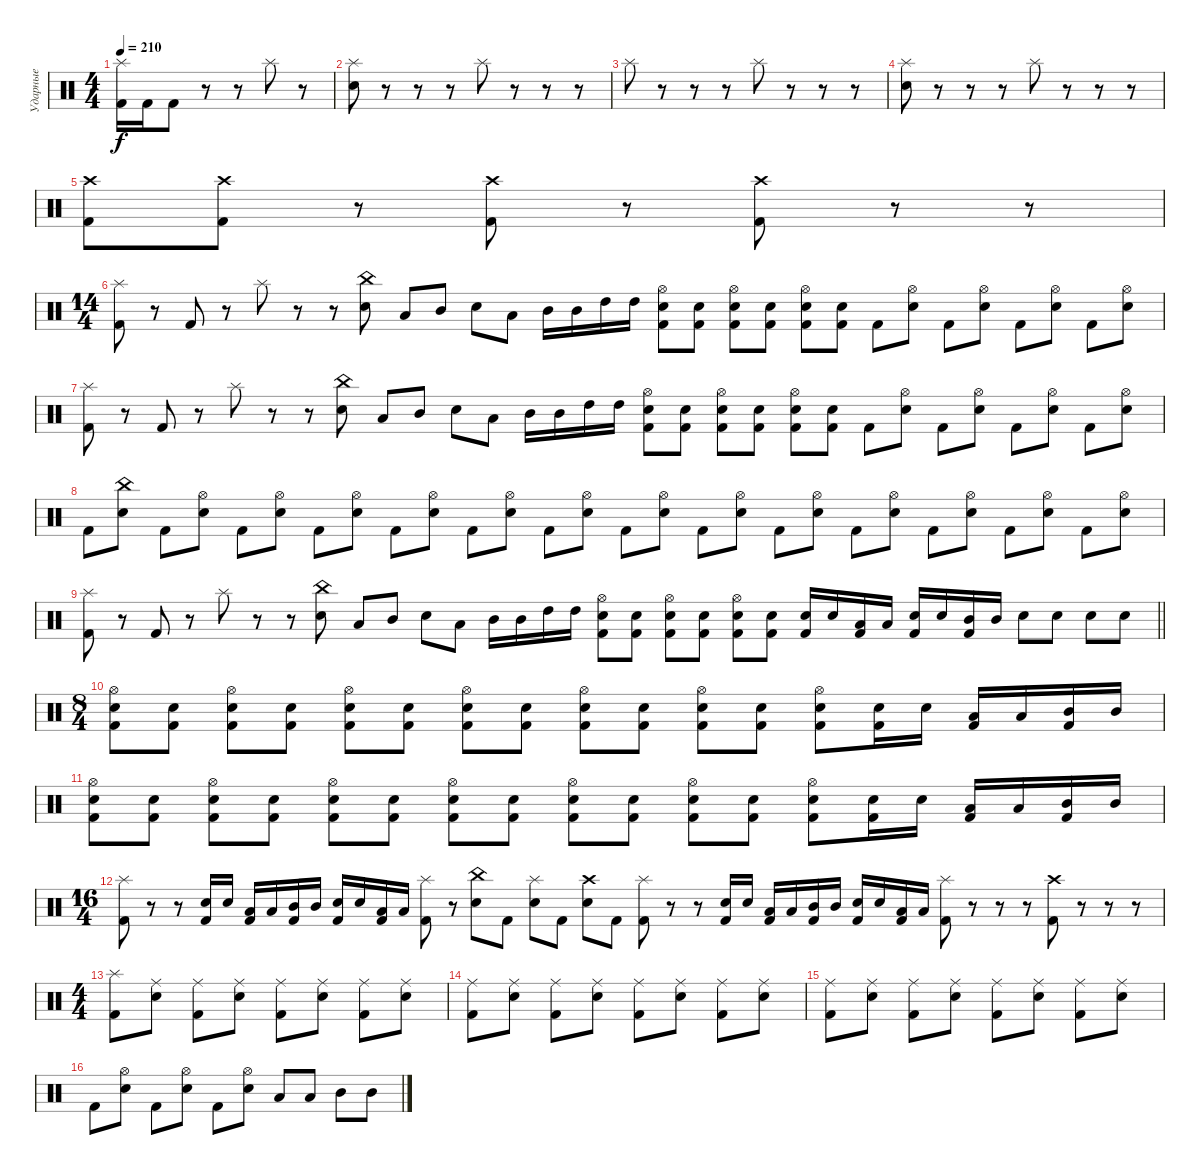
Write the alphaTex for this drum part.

\track ("Ударные" "Ударные") {instrument percussion}
\staff {score}
\articulation defaults
\ts (4 4)
\tempo 210
\clef neutral
\ks c
("Kick (hit) 2" "Splash (hit)").16{dy f} "Kick (hit) 2".16 "Kick (hit) 2".8 r.8 r.8 "Splash (hit)".8 r.8 |
("Electric Snare (hit)" "Splash (hit)").8 r.8 r.8 r.8 "Splash (hit)".8 r.8 r.8 r.8 |
"Splash (hit)".8 r.8 r.8 r.8 "Splash (hit)".8 r.8 r.8 r.8 |
("Electric Snare (hit)" "Splash (hit)").8 r.8 r.8 r.8 "Splash (hit)".8 r.8 r.8 r.8 |
("Kick (hit) 2" "Crash high (hit)").8 ("Kick (hit) 2" "Crash high (hit)").8 r.8 ("Kick (hit) 2" "Crash high (hit)").8 r.8 ("Kick (hit) 2" "Crash high (hit)").8 r.8 r.8 |
\ts (14 4)
("Kick (hit) 2" "Splash (hit)").8 r.8 "Kick (hit) 2".8 r.8 "Splash (hit)".8 r.8 r.8 ("Electric Snare (hit)" "China (hit)").8 "Low Tom (hit)".8 "Mid Tom (hit)".8 "Electric Snare (hit)".8 "Low Tom (hit)".8 "Mid Tom (hit)".16 "Mid Tom (hit)".16 "High Tom (hit)".16 "High Tom (hit)".16 ("Kick (hit) 2" "Electric Snare (hit)" "Hi-Hat (open)").8 ("Kick (hit) 2" "Electric Snare (hit)").8 ("Kick (hit) 2" "Electric Snare (hit)" "Hi-Hat (open)").8 ("Kick (hit) 2" "Electric Snare (hit)").8 ("Kick (hit) 2" "Electric Snare (hit)" "Hi-Hat (open)").8 ("Kick (hit) 2" "Electric Snare (hit)").8 "Kick (hit) 2".8 ("Electric Snare (hit)" "Hi-Hat (open)").8 "Kick (hit) 2".8 ("Electric Snare (hit)" "Hi-Hat (open)").8 "Kick (hit) 2".8 ("Electric Snare (hit)" "Hi-Hat (open)").8 "Kick (hit) 2".8 ("Electric Snare (hit)" "Hi-Hat (open)").8 |
("Kick (hit) 2" "Splash (hit)").8 r.8 "Kick (hit) 2".8 r.8 "Splash (hit)".8 r.8 r.8 ("Electric Snare (hit)" "China (hit)").8 "Low Tom (hit)".8 "Mid Tom (hit)".8 "Electric Snare (hit)".8 "Low Tom (hit)".8 "Mid Tom (hit)".16 "Mid Tom (hit)".16 "High Tom (hit)".16 "High Tom (hit)".16 ("Kick (hit) 2" "Electric Snare (hit)" "Hi-Hat (open)").8 ("Kick (hit) 2" "Electric Snare (hit)").8 ("Kick (hit) 2" "Electric Snare (hit)" "Hi-Hat (open)").8 ("Kick (hit) 2" "Electric Snare (hit)").8 ("Kick (hit) 2" "Electric Snare (hit)" "Hi-Hat (open)").8 ("Kick (hit) 2" "Electric Snare (hit)").8 "Kick (hit) 2".8 ("Electric Snare (hit)" "Hi-Hat (open)").8 "Kick (hit) 2".8 ("Electric Snare (hit)" "Hi-Hat (open)").8 "Kick (hit) 2".8 ("Electric Snare (hit)" "Hi-Hat (open)").8 "Kick (hit) 2".8 ("Electric Snare (hit)" "Hi-Hat (open)").8 |
"Kick (hit) 2".8 ("Electric Snare (hit)" "China (hit)").8 "Kick (hit) 2".8 ("Electric Snare (hit)" "Hi-Hat (open)").8 "Kick (hit) 2".8 ("Electric Snare (hit)" "Hi-Hat (open)").8 "Kick (hit) 2".8 ("Electric Snare (hit)" "Hi-Hat (open)").8 "Kick (hit) 2".8 ("Electric Snare (hit)" "Hi-Hat (open)").8 "Kick (hit) 2".8 ("Electric Snare (hit)" "Hi-Hat (open)").8 "Kick (hit) 2".8 ("Electric Snare (hit)" "Hi-Hat (open)").8 "Kick (hit) 2".8 ("Electric Snare (hit)" "Hi-Hat (open)").8 "Kick (hit) 2".8 ("Electric Snare (hit)" "Hi-Hat (open)").8 "Kick (hit) 2".8 ("Electric Snare (hit)" "Hi-Hat (open)").8 "Kick (hit) 2".8 ("Electric Snare (hit)" "Hi-Hat (open)").8 "Kick (hit) 2".8 ("Electric Snare (hit)" "Hi-Hat (open)").8 "Kick (hit) 2".8 ("Electric Snare (hit)" "Hi-Hat (open)").8 "Kick (hit) 2".8 ("Electric Snare (hit)" "Hi-Hat (open)").8 |
\barLineRight lightlight
("Kick (hit) 2" "Splash (hit)").8 r.8 "Kick (hit) 2".8 r.8 "Splash (hit)".8 r.8 r.8 ("Electric Snare (hit)" "China (hit)").8 "Low Tom (hit)".8 "Mid Tom (hit)".8 "Electric Snare (hit)".8 "Low Tom (hit)".8 "Mid Tom (hit)".16 "Mid Tom (hit)".16 "High Tom (hit)".16 "High Tom (hit)".16 ("Kick (hit) 2" "Electric Snare (hit)" "Hi-Hat (open)").8 ("Kick (hit) 2" "Electric Snare (hit)").8 ("Kick (hit) 2" "Electric Snare (hit)" "Hi-Hat (open)").8 ("Kick (hit) 2" "Electric Snare (hit)").8 ("Kick (hit) 2" "Electric Snare (hit)" "Hi-Hat (open)").8 ("Kick (hit) 2" "Electric Snare (hit)").8 ("Kick (hit) 2" "Electric Snare (hit)").16 "Electric Snare (hit)".16 ("Kick (hit) 2" "Low Tom (hit)").16 "Low Tom (hit)".16 ("Kick (hit) 2" "Electric Snare (hit)").16 "Electric Snare (hit)".16 ("Kick (hit) 2" "Mid Tom (hit)").16 "Mid Tom (hit)".16 "Electric Snare (hit)".8 "Electric Snare (hit)".8 "Electric Snare (hit)".8 "Electric Snare (hit)".8 |
\ts (8 4)
("Hi-Hat (open)" "Electric Snare (hit)" "Kick (hit) 2").8 ("Electric Snare (hit)" "Kick (hit) 2").8 ("Hi-Hat (open)" "Electric Snare (hit)" "Kick (hit) 2").8 ("Electric Snare (hit)" "Kick (hit) 2").8 ("Hi-Hat (open)" "Electric Snare (hit)" "Kick (hit) 2").8 ("Electric Snare (hit)" "Kick (hit) 2").8 ("Hi-Hat (open)" "Electric Snare (hit)" "Kick (hit) 2").8 ("Electric Snare (hit)" "Kick (hit) 2").8 ("Hi-Hat (open)" "Electric Snare (hit)" "Kick (hit) 2").8 ("Electric Snare (hit)" "Kick (hit) 2").8 ("Hi-Hat (open)" "Electric Snare (hit)" "Kick (hit) 2").8 ("Electric Snare (hit)" "Kick (hit) 2").8 ("Hi-Hat (open)" "Electric Snare (hit)" "Kick (hit) 2").8 ("Kick (hit) 2" "Electric Snare (hit)").16 "Electric Snare (hit)".16 ("Kick (hit) 2" "Low Tom (hit)").16 "Low Tom (hit)".16 ("Kick (hit) 2" "Mid Tom (hit)").16 "Mid Tom (hit)".16 |
("Hi-Hat (open)" "Electric Snare (hit)" "Kick (hit) 2").8 ("Electric Snare (hit)" "Kick (hit) 2").8 ("Hi-Hat (open)" "Electric Snare (hit)" "Kick (hit) 2").8 ("Electric Snare (hit)" "Kick (hit) 2").8 ("Hi-Hat (open)" "Electric Snare (hit)" "Kick (hit) 2").8 ("Electric Snare (hit)" "Kick (hit) 2").8 ("Hi-Hat (open)" "Electric Snare (hit)" "Kick (hit) 2").8 ("Electric Snare (hit)" "Kick (hit) 2").8 ("Hi-Hat (open)" "Electric Snare (hit)" "Kick (hit) 2").8 ("Electric Snare (hit)" "Kick (hit) 2").8 ("Hi-Hat (open)" "Electric Snare (hit)" "Kick (hit) 2").8 ("Electric Snare (hit)" "Kick (hit) 2").8 ("Hi-Hat (open)" "Electric Snare (hit)" "Kick (hit) 2").8 ("Kick (hit) 2" "Electric Snare (hit)").16 "Electric Snare (hit)".16 ("Kick (hit) 2" "Low Tom (hit)").16 "Low Tom (hit)".16 ("Kick (hit) 2" "Mid Tom (hit)").16 "Mid Tom (hit)".16 |
\ts (16 4)
("Kick (hit) 2" "Splash (hit)").8 r.8 r.8 ("Kick (hit) 2" "Electric Snare (hit)").16 "Electric Snare (hit)".16 ("Kick (hit) 2" "Low Tom (hit)").16 "Low Tom (hit)".16 ("Kick (hit) 2" "Mid Tom (hit)").16 "Mid Tom (hit)".16 ("Kick (hit) 2" "Electric Snare (hit)").16 "Electric Snare (hit)".16 ("Kick (hit) 2" "Low Tom (hit)").16 "Low Tom (hit)".16 ("Kick (hit) 2" "Splash (hit)").8 r.8 ("Electric Snare (hit)" "China (hit)").8 "Kick (hit) 2".8 ("Electric Snare (hit)" "Splash (hit)").8 "Kick (hit) 2".8 ("Electric Snare (hit)" "Crash high (hit)").8 "Kick (hit) 2".8 ("Kick (hit) 2" "Splash (hit)").8 r.8 r.8 ("Kick (hit) 2" "Electric Snare (hit)").16 "Electric Snare (hit)".16 ("Kick (hit) 2" "Low Tom (hit)").16 "Low Tom (hit)".16 ("Kick (hit) 2" "Mid Tom (hit)").16 "Mid Tom (hit)".16 ("Kick (hit) 2" "Electric Snare (hit)").16 "Electric Snare (hit)".16 ("Kick (hit) 2" "Low Tom (hit)").16 "Low Tom (hit)".16 ("Kick (hit) 2" "Splash (hit)").8 r.8 r.8 r.8 ("Kick (hit) 2" "Crash high (hit)").8 r.8 r.8 r.8 |
\ts (4 4)
("Kick (hit) 2" "Splash (hit)").8 ("Electric Snare (hit)" "Ride (middle)").8 ("Kick (hit) 2" "Ride (middle)").8 ("Electric Snare (hit)" "Ride (middle)").8 ("Kick (hit) 2" "Ride (middle)").8 ("Electric Snare (hit)" "Ride (middle)").8 ("Kick (hit) 2" "Ride (middle)").8 ("Electric Snare (hit)" "Ride (middle)").8 |
("Kick (hit) 2" "Ride (middle)").8 ("Electric Snare (hit)" "Ride (middle)").8 ("Kick (hit) 2" "Ride (middle)").8 ("Electric Snare (hit)" "Ride (middle)").8 ("Kick (hit) 2" "Ride (middle)").8 ("Electric Snare (hit)" "Ride (middle)").8 ("Kick (hit) 2" "Ride (middle)").8 ("Electric Snare (hit)" "Ride (middle)").8 |
("Kick (hit) 2" "Ride (middle)").8 ("Electric Snare (hit)" "Ride (middle)").8 ("Kick (hit) 2" "Ride (middle)").8 ("Electric Snare (hit)" "Ride (middle)").8 ("Kick (hit) 2" "Ride (middle)").8 ("Electric Snare (hit)" "Ride (middle)").8 ("Kick (hit) 2" "Ride (middle)").8 ("Electric Snare (hit)" "Ride (middle)").8 |
"Kick (hit) 2".8 ("Electric Snare (hit)" "Hi-Hat (open)").8 "Kick (hit) 2".8 ("Electric Snare (hit)" "Hi-Hat (open)").8 "Kick (hit) 2".8 ("Electric Snare (hit)" "Hi-Hat (open)").8 "Low Tom (hit)".8 "Low Tom (hit)".8 "Mid Tom (hit)".8 "Mid Tom (hit)".8
